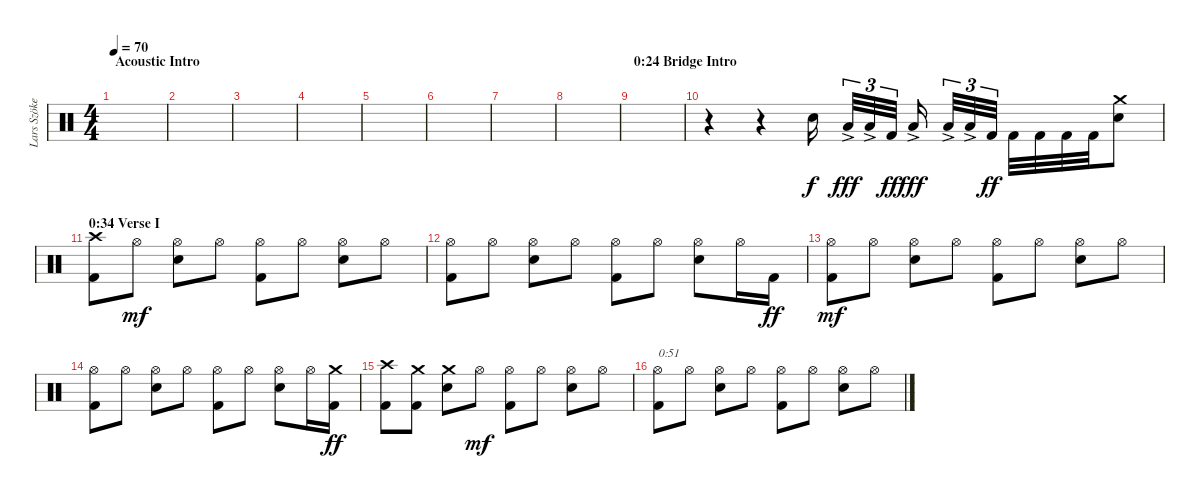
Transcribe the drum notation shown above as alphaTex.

\track ("Lars Szöke (Drums)" "Lars Szöke") {instrument percussion}
\staff {score}
\articulation defaults
\ts (4 4)
\section ("" "Acoustic Intro")
\tempo 70
\clef neutral
\ks c
|
|
|
|
|
|
|
|
\section ("" "0:24 Bridge Intro")
|
r.4 r.4 "Electric Snare (hit)".16 "Low Tom (hit)"{ac}.32{tu (3 2) dy fff} "Low Tom (hit)"{ac}.32{tu (3 2)} "Kick (hit) 2".32{tu (3 2) dy ff} "Low Tom (hit)"{ac}.16{dy fff} "Low Tom (hit)"{ac}.32{tu (3 2)} "Low Tom (hit)"{ac}.32{tu (3 2)} "Kick (hit) 2".32{tu (3 2) dy ff} "Kick (hit) 2".32 "Kick (hit) 2".32 "Kick (hit) 2".32 "Kick (hit) 2".32 ("Electric Snare (hit)" "Crash medium (hit)").8 |
\section ("" "0:34 Verse I")
("Kick (hit) 2" "Crash high (hit)").8 "Hi-Hat (open)".8{dy mf} ("Electric Snare (hit)" "Hi-Hat (open)").8 "Hi-Hat (open)".8 ("Kick (hit) 2" "Hi-Hat (open)").8 "Hi-Hat (open)".8 ("Electric Snare (hit)" "Hi-Hat (open)").8 "Hi-Hat (open)".8 |
("Kick (hit) 2" "Hi-Hat (open)").8 "Hi-Hat (open)".8 ("Electric Snare (hit)" "Hi-Hat (open)").8 "Hi-Hat (open)".8 ("Kick (hit) 2" "Hi-Hat (open)").8 "Hi-Hat (open)".8 ("Electric Snare (hit)" "Hi-Hat (open)").8 "Hi-Hat (open)".16 "Kick (hit) 2".16{dy ff} |
("Kick (hit) 2" "Hi-Hat (open)").8{dy mf} "Hi-Hat (open)".8 ("Electric Snare (hit)" "Hi-Hat (open)").8 "Hi-Hat (open)".8 ("Kick (hit) 2" "Hi-Hat (open)").8 "Hi-Hat (open)".8 ("Electric Snare (hit)" "Hi-Hat (open)").8 "Hi-Hat (open)".8 |
("Kick (hit) 2" "Hi-Hat (open)").8 "Hi-Hat (open)".8 ("Electric Snare (hit)" "Hi-Hat (open)").8 "Hi-Hat (open)".8 ("Kick (hit) 2" "Hi-Hat (open)").8 "Hi-Hat (open)".8 ("Electric Snare (hit)" "Hi-Hat (open)").8 "Hi-Hat (open)".16 ("Kick (hit) 2" "Crash medium (hit)").16{dy ff} |
("Kick (hit) 2" "Crash high (hit)").8 ("Kick (hit) 2" "Crash medium (hit)").8 ("Electric Snare (hit)" "Crash medium (hit)").8 "Hi-Hat (open)".8{dy mf} ("Kick (hit) 2" "Hi-Hat (open)").8 "Hi-Hat (open)".8 ("Electric Snare (hit)" "Hi-Hat (open)").8 "Hi-Hat (open)".8 |
("Kick (hit) 2" "Hi-Hat (open)").8{txt "0:51"} "Hi-Hat (open)".8 ("Electric Snare (hit)" "Hi-Hat (open)").8 "Hi-Hat (open)".8 ("Kick (hit) 2" "Hi-Hat (open)").8 "Hi-Hat (open)".8 ("Electric Snare (hit)" "Hi-Hat (open)").8 "Hi-Hat (open)".8
